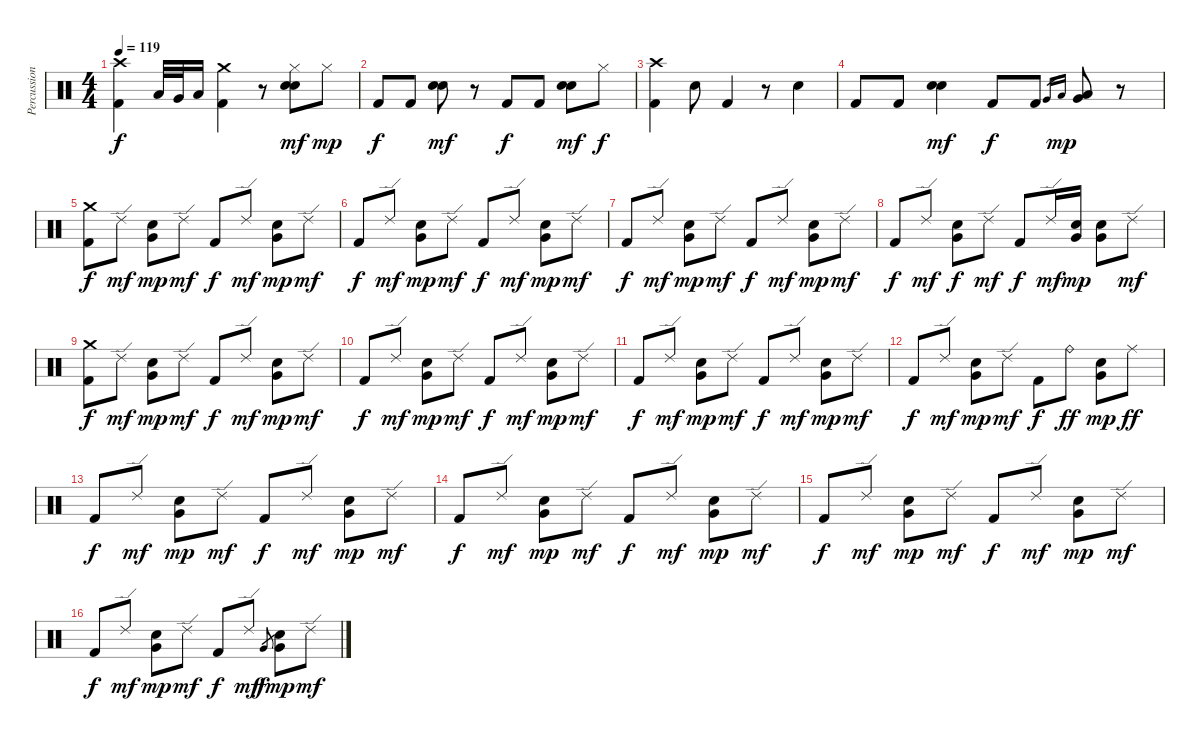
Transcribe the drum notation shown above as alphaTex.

\track ("Percussion" "Percussion") {instrument percussion}
\staff {score}
\articulation defaults
\ts (4 4)
\tempo 119
\clef neutral
\ks c
("Crash high (hit)" "Kick (hit) 2").4{dy f} "Low Tom (hit)".32 "Very Low Tom (hit)".32 "Low Floor Tom (hit)".16 ("Crash medium (hit)" "Kick (hit) 2").4 r.8 ("Hi-Hat (closed)" "Electric Snare (hit)" "Snare (hit) 2").8{dy mf} "Hi-Hat (closed)".8{dy mp} |
"Kick (hit) 2".8{dy f} "Kick (hit) 2".8 ("Electric Snare (hit)" "Snare (hit) 2").8{dy mf} r.8 "Kick (hit) 2".8{dy f} "Kick (hit) 2".8 ("Electric Snare (hit)" "Snare (hit) 2").8{dy mf} "Hi-Hat (closed)".8{dy f} |
("Crash high (hit)" "Kick (hit) 2").4 "Snare (hit) 2".8 "Kick (hit) 2".4 r.8 "Snare (hit) 2".4 |
"Kick (hit) 2".8 "Kick (hit) 2".8 ("Electric Snare (hit)" "Snare (hit) 2").4{dy mf} "Kick (hit) 2".8{dy f} "Kick (hit) 2".8 "Very Low Tom (hit)".16{gr} "Low Floor Tom (hit)".16{gr dy mp} ("Very Low Tom (hit)" "Low Floor Tom (hit)").8 r.8 |
("Crash medium (hit)" "Kick (hit) 2").8{dy f} "Ride (edge) 2".8{dy mf} ("Very Low Tom (hit)" "Snare (hit) 2").8{dy mp} "Ride (edge) 2".8{dy mf} "Kick (hit) 2".8{dy f} "Ride (edge) 2".8{dy mf} ("Very Low Tom (hit)" "Snare (hit) 2").8{dy mp} "Ride (edge) 2".8{dy mf} |
"Kick (hit) 2".8{dy f} "Ride (edge) 2".8{dy mf} ("Very Low Tom (hit)" "Snare (hit) 2").8{dy mp} "Ride (edge) 2".8{dy mf} "Kick (hit) 2".8{dy f} "Ride (edge) 2".8{dy mf} ("Very Low Tom (hit)" "Snare (hit) 2").8{dy mp} "Ride (edge) 2".8{dy mf} |
"Kick (hit) 2".8{dy f} "Ride (edge) 2".8{dy mf} ("Very Low Tom (hit)" "Snare (hit) 2").8{dy mp} "Ride (edge) 2".8{dy mf} "Kick (hit) 2".8{dy f} "Ride (edge) 2".8{dy mf} ("Very Low Tom (hit)" "Snare (hit) 2").8{dy mp} "Ride (edge) 2".8{dy mf} |
"Kick (hit) 2".8{dy f} "Ride (edge) 2".8{dy mf} ("Very Low Tom (hit)" "Snare (hit) 2").8{dy f} "Ride (edge) 2".8{dy mf} "Kick (hit) 2".8{dy f} "Ride (edge) 2".16{dy mf} ("Very Low Tom (hit)" "Snare (hit) 2").16{dy mp} ("Very Low Tom (hit)" "Snare (hit) 2").8 "Ride (edge) 2".8{dy mf} |
("Crash medium (hit)" "Kick (hit) 2").8{dy f} "Ride (edge) 2".8{dy mf} ("Very Low Tom (hit)" "Snare (hit) 2").8{dy mp} "Ride (edge) 2".8{dy mf} "Kick (hit) 2".8{dy f} "Ride (edge) 2".8{dy mf} ("Very Low Tom (hit)" "Snare (hit) 2").8{dy mp} "Ride (edge) 2".8{dy mf} |
"Kick (hit) 2".8{dy f} "Ride (edge) 2".8{dy mf} ("Very Low Tom (hit)" "Snare (hit) 2").8{dy mp} "Ride (edge) 2".8{dy mf} "Kick (hit) 2".8{dy f} "Ride (edge) 2".8{dy mf} ("Very Low Tom (hit)" "Snare (hit) 2").8{dy mp} "Ride (edge) 2".8{dy mf} |
"Kick (hit) 2".8{dy f} "Ride (edge) 2".8{dy mf} ("Very Low Tom (hit)" "Snare (hit) 2").8{dy mp} "Ride (edge) 2".8{dy mf} "Kick (hit) 2".8{dy f} "Ride (edge) 2".8{dy mf} ("Very Low Tom (hit)" "Snare (hit) 2").8{dy mp} "Ride (edge) 2".8{dy mf} |
"Kick (hit) 2".8{dy f} "Ride (edge) 2".8{dy mf} ("Very Low Tom (hit)" "Snare (hit) 2").8{dy mp} "Ride (edge) 2".8{dy mf} "Kick (hit) 2".8{dy f} "Ride (bell)".8{dy ff} ("Very Low Tom (hit)" "Snare (hit) 2").8{dy mp} "Ride (middle)".8{dy ff} |
"Kick (hit) 2".8{dy f} "Ride (edge) 2".8{dy mf} ("Very Low Tom (hit)" "Snare (hit) 2").8{dy mp} "Ride (edge) 2".8{dy mf} "Kick (hit) 2".8{dy f} "Ride (edge) 2".8{dy mf} ("Very Low Tom (hit)" "Snare (hit) 2").8{dy mp} "Ride (edge) 2".8{dy mf} |
"Kick (hit) 2".8{dy f} "Ride (edge) 2".8{dy mf} ("Very Low Tom (hit)" "Snare (hit) 2").8{dy mp} "Ride (edge) 2".8{dy mf} "Kick (hit) 2".8{dy f} "Ride (edge) 2".8{dy mf} ("Very Low Tom (hit)" "Snare (hit) 2").8{dy mp} "Ride (edge) 2".8{dy mf} |
"Kick (hit) 2".8{dy f} "Ride (edge) 2".8{dy mf} ("Very Low Tom (hit)" "Snare (hit) 2").8{dy mp} "Ride (edge) 2".8{dy mf} "Kick (hit) 2".8{dy f} "Ride (edge) 2".8{dy mf} ("Very Low Tom (hit)" "Snare (hit) 2").8{dy mp} "Ride (edge) 2".8{dy mf} |
"Kick (hit) 2".8{dy f} "Ride (edge) 2".8{dy mf} ("Very Low Tom (hit)" "Snare (hit) 2").8{dy mp} "Ride (edge) 2".8{dy mf} "Kick (hit) 2".8{dy f} "Ride (edge) 2".8{dy mf} "Very Low Tom (hit)".8{gr dy f} ("Very Low Tom (hit)" "Snare (hit) 2").8{dy mp} "Ride (edge) 2".8{dy mf}
